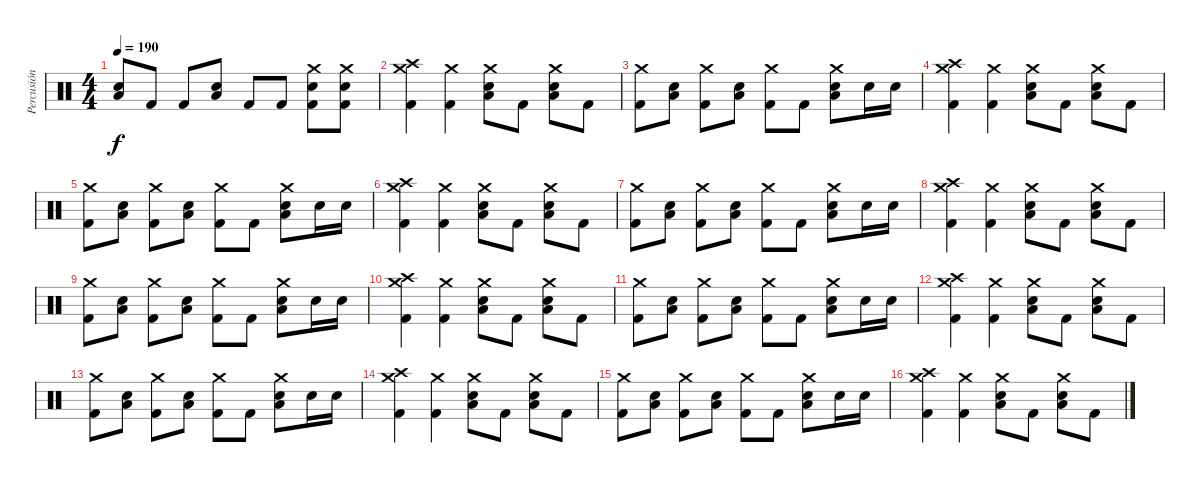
\track ("Percusión" "Percusión") {instrument percussion}
\staff {score}
\articulation defaults
\ts (4 4)
\tempo 190
\clef neutral
\ks c
("Low Tom (hit)" "Snare (hit) 2").8{dy f} "Kick (hit) 2".8 "Kick (hit) 2".8 ("Low Tom (hit)" "Snare (hit) 2").8 "Kick (hit) 2".8 "Kick (hit) 2".8 ("Crash medium (hit)" "Snare (hit) 2" "Kick (hit) 2").8 ("Crash medium (hit)" "Snare (hit) 2" "Kick (hit) 2").8 |
("Crash medium (hit)" "Crash high (hit)" "Kick (hit) 2").4 ("Crash medium (hit)" "Kick (hit) 2").4 ("Crash medium (hit)" "Low Tom (hit)" "Snare (hit) 2").8 "Kick (hit) 2".8 ("Crash medium (hit)" "Low Tom (hit)" "Snare (hit) 2").8 "Kick (hit) 2".8 |
("Crash medium (hit)" "Kick (hit) 2").8 ("Low Tom (hit)" "Snare (hit) 2").8 ("Crash medium (hit)" "Kick (hit) 2").8 ("Low Tom (hit)" "Snare (hit) 2").8 ("Crash medium (hit)" "Kick (hit) 2").8 "Kick (hit) 2".8 ("Crash medium (hit)" "Low Tom (hit)" "Snare (hit) 2").8 "Snare (hit) 2".16 "Snare (hit) 2".16 |
("Crash medium (hit)" "Crash high (hit)" "Kick (hit) 2").4 ("Crash medium (hit)" "Kick (hit) 2").4 ("Crash medium (hit)" "Low Tom (hit)" "Snare (hit) 2").8 "Kick (hit) 2".8 ("Crash medium (hit)" "Low Tom (hit)" "Snare (hit) 2").8 "Kick (hit) 2".8 |
("Crash medium (hit)" "Kick (hit) 2").8 ("Low Tom (hit)" "Snare (hit) 2").8 ("Crash medium (hit)" "Kick (hit) 2").8 ("Low Tom (hit)" "Snare (hit) 2").8 ("Crash medium (hit)" "Kick (hit) 2").8 "Kick (hit) 2".8 ("Crash medium (hit)" "Low Tom (hit)" "Snare (hit) 2").8 "Snare (hit) 2".16 "Snare (hit) 2".16 |
("Crash medium (hit)" "Crash high (hit)" "Kick (hit) 2").4 ("Crash medium (hit)" "Kick (hit) 2").4 ("Crash medium (hit)" "Low Tom (hit)" "Snare (hit) 2").8 "Kick (hit) 2".8 ("Crash medium (hit)" "Low Tom (hit)" "Snare (hit) 2").8 "Kick (hit) 2".8 |
("Crash medium (hit)" "Kick (hit) 2").8 ("Low Tom (hit)" "Snare (hit) 2").8 ("Crash medium (hit)" "Kick (hit) 2").8 ("Low Tom (hit)" "Snare (hit) 2").8 ("Crash medium (hit)" "Kick (hit) 2").8 "Kick (hit) 2".8 ("Crash medium (hit)" "Low Tom (hit)" "Snare (hit) 2").8 "Snare (hit) 2".16 "Snare (hit) 2".16 |
("Crash medium (hit)" "Crash high (hit)" "Kick (hit) 2").4 ("Crash medium (hit)" "Kick (hit) 2").4 ("Crash medium (hit)" "Low Tom (hit)" "Snare (hit) 2").8 "Kick (hit) 2".8 ("Crash medium (hit)" "Low Tom (hit)" "Snare (hit) 2").8 "Kick (hit) 2".8 |
("Crash medium (hit)" "Kick (hit) 2").8 ("Low Tom (hit)" "Snare (hit) 2").8 ("Crash medium (hit)" "Kick (hit) 2").8 ("Low Tom (hit)" "Snare (hit) 2").8 ("Crash medium (hit)" "Kick (hit) 2").8 "Kick (hit) 2".8 ("Crash medium (hit)" "Low Tom (hit)" "Snare (hit) 2").8 "Snare (hit) 2".16 "Snare (hit) 2".16 |
("Crash medium (hit)" "Crash high (hit)" "Kick (hit) 2").4 ("Crash medium (hit)" "Kick (hit) 2").4 ("Crash medium (hit)" "Low Tom (hit)" "Snare (hit) 2").8 "Kick (hit) 2".8 ("Crash medium (hit)" "Low Tom (hit)" "Snare (hit) 2").8 "Kick (hit) 2".8 |
("Crash medium (hit)" "Kick (hit) 2").8 ("Low Tom (hit)" "Snare (hit) 2").8 ("Crash medium (hit)" "Kick (hit) 2").8 ("Low Tom (hit)" "Snare (hit) 2").8 ("Crash medium (hit)" "Kick (hit) 2").8 "Kick (hit) 2".8 ("Crash medium (hit)" "Low Tom (hit)" "Snare (hit) 2").8 "Snare (hit) 2".16 "Snare (hit) 2".16 |
("Crash medium (hit)" "Crash high (hit)" "Kick (hit) 2").4 ("Crash medium (hit)" "Kick (hit) 2").4 ("Crash medium (hit)" "Low Tom (hit)" "Snare (hit) 2").8 "Kick (hit) 2".8 ("Crash medium (hit)" "Low Tom (hit)" "Snare (hit) 2").8 "Kick (hit) 2".8 |
("Crash medium (hit)" "Kick (hit) 2").8 ("Low Tom (hit)" "Snare (hit) 2").8 ("Crash medium (hit)" "Kick (hit) 2").8 ("Low Tom (hit)" "Snare (hit) 2").8 ("Crash medium (hit)" "Kick (hit) 2").8 "Kick (hit) 2".8 ("Crash medium (hit)" "Low Tom (hit)" "Snare (hit) 2").8 "Snare (hit) 2".16 "Snare (hit) 2".16 |
("Crash medium (hit)" "Crash high (hit)" "Kick (hit) 2").4 ("Crash medium (hit)" "Kick (hit) 2").4 ("Crash medium (hit)" "Low Tom (hit)" "Snare (hit) 2").8 "Kick (hit) 2".8 ("Crash medium (hit)" "Low Tom (hit)" "Snare (hit) 2").8 "Kick (hit) 2".8 |
("Crash medium (hit)" "Kick (hit) 2").8 ("Low Tom (hit)" "Snare (hit) 2").8 ("Crash medium (hit)" "Kick (hit) 2").8 ("Low Tom (hit)" "Snare (hit) 2").8 ("Crash medium (hit)" "Kick (hit) 2").8 "Kick (hit) 2".8 ("Crash medium (hit)" "Low Tom (hit)" "Snare (hit) 2").8 "Snare (hit) 2".16 "Snare (hit) 2".16 |
("Crash medium (hit)" "Crash high (hit)" "Kick (hit) 2").4 ("Crash medium (hit)" "Kick (hit) 2").4 ("Crash medium (hit)" "Low Tom (hit)" "Snare (hit) 2").8 "Kick (hit) 2".8 ("Crash medium (hit)" "Low Tom (hit)" "Snare (hit) 2").8 "Kick (hit) 2".8
